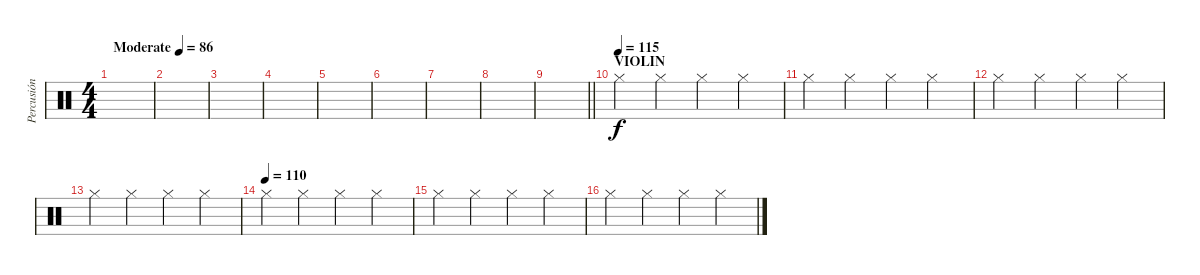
\track ("Percusión" "Percusión") {instrument percussion}
\staff {score}
\articulation defaults
\ts (4 4)
\tempo (86 "Moderate")
\clef neutral
\ks c
|
|
|
|
|
|
|
|
\barLineRight lightlight
|
\section ("" "VIOLIN")
\tempo (115)
"Hi-Hat (closed)".4 "Hi-Hat (closed)".4 "Hi-Hat (closed)".4 "Hi-Hat (closed)".4 |
"Hi-Hat (closed)".4 "Hi-Hat (closed)".4 "Hi-Hat (closed)".4 "Hi-Hat (closed)".4 |
"Hi-Hat (closed)".4 "Hi-Hat (closed)".4 "Hi-Hat (closed)".4 "Hi-Hat (closed)".4 |
"Hi-Hat (closed)".4 "Hi-Hat (closed)".4 "Hi-Hat (closed)".4 "Hi-Hat (closed)".4 |
\tempo (110)
"Hi-Hat (closed)".4 "Hi-Hat (closed)".4 "Hi-Hat (closed)".4 "Hi-Hat (closed)".4 |
"Hi-Hat (closed)".4 "Hi-Hat (closed)".4 "Hi-Hat (closed)".4 "Hi-Hat (closed)".4 |
"Hi-Hat (closed)".4 "Hi-Hat (closed)".4 "Hi-Hat (closed)".4 "Hi-Hat (closed)".4
